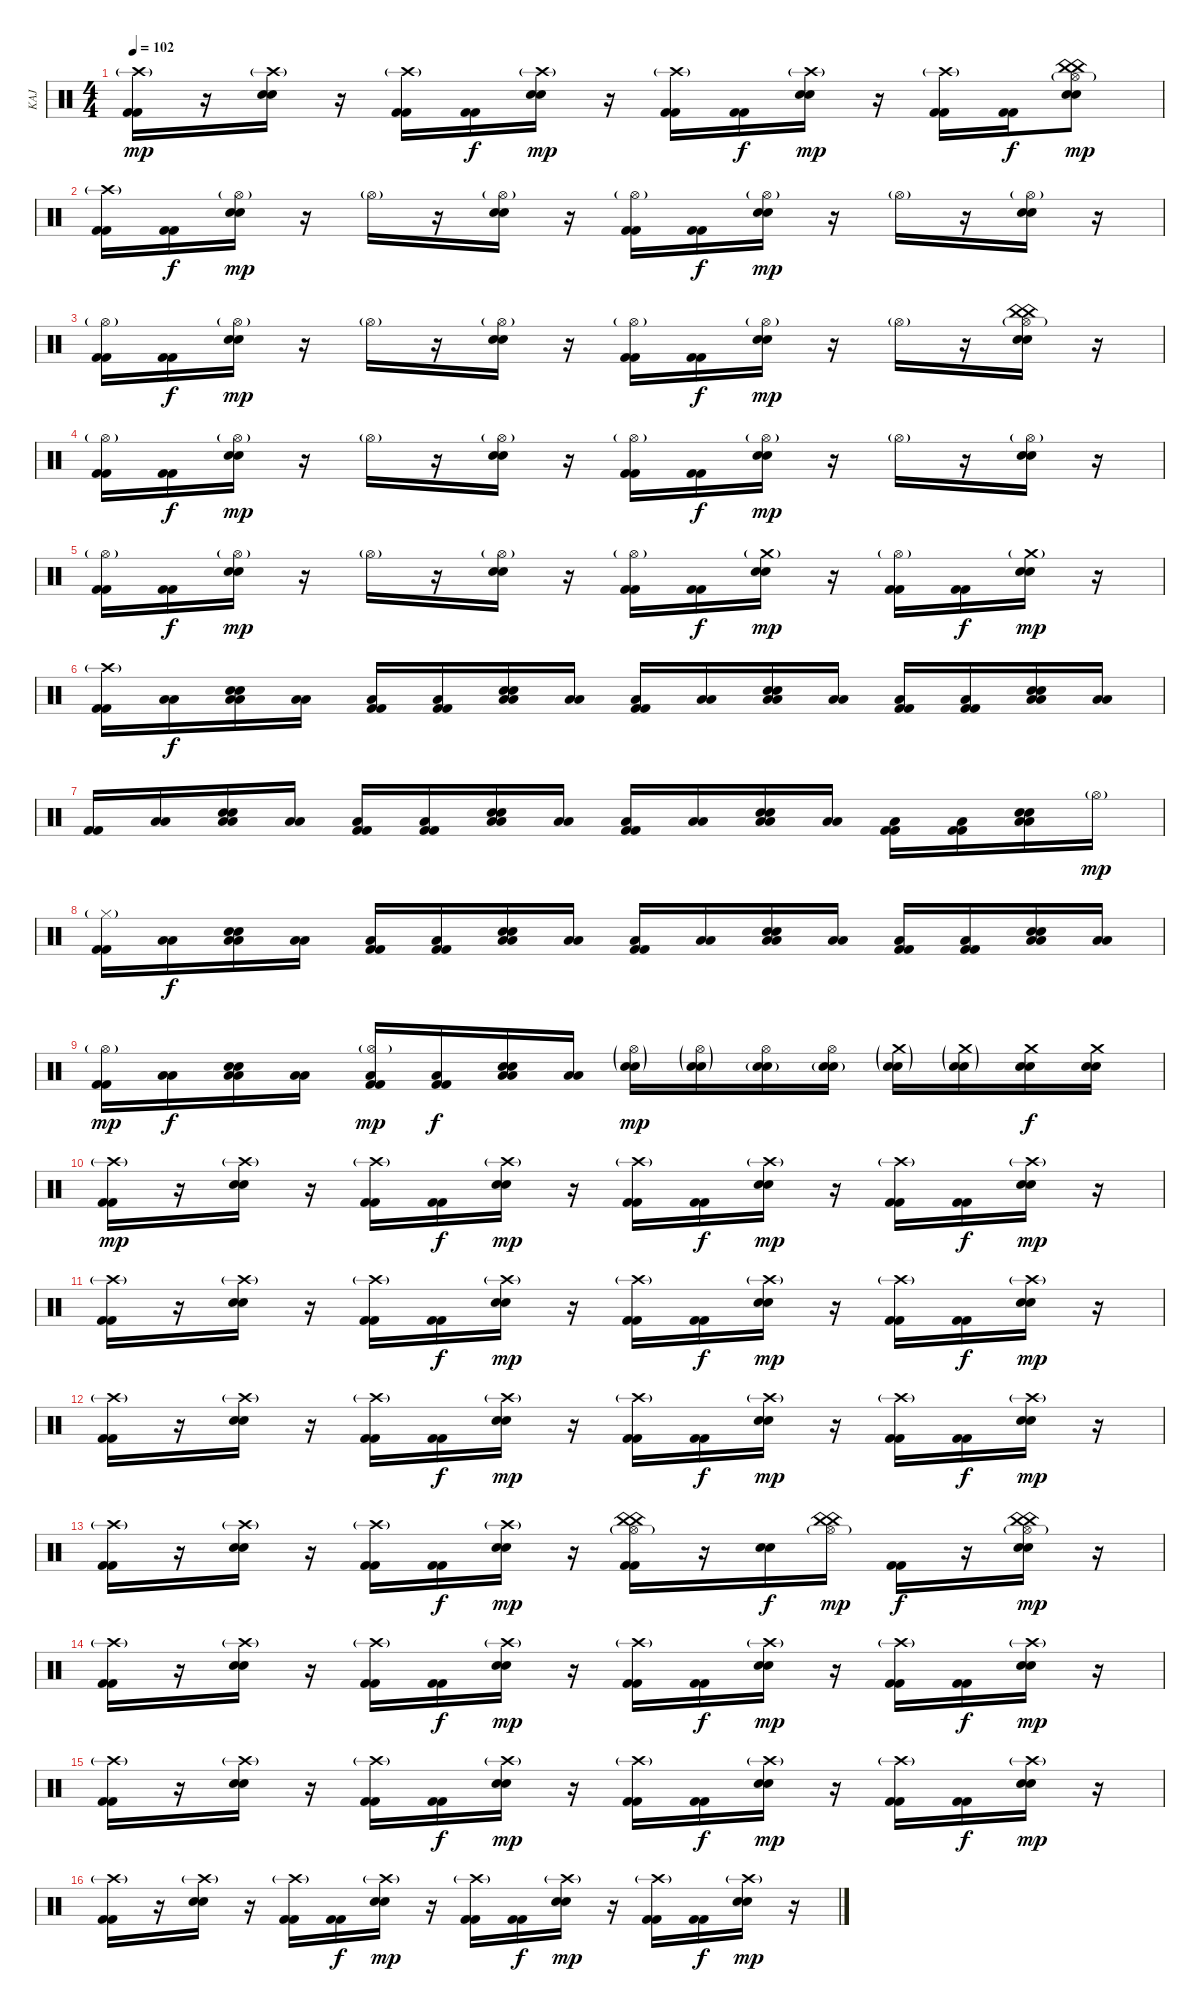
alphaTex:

\track ("KAJ" "KAJ") {instrument percussion}
\staff {score}
\articulation defaults
\ts (4 4)
\tempo 102
\clef neutral
\ks c
("Crash high (hit)"{g} "Kick (hit) 2" "Kick (hit) 2").16{dy mp} r.16 ("Crash high (hit)"{g} "Electric Snare (hit)" "Electric Snare (hit)").16 r.16 ("Crash high (hit)"{g} "Kick (hit) 2" "Kick (hit) 2").16 ("Kick (hit) 2" "Kick (hit) 2").16{dy f} ("Crash high (hit)"{g} "Electric Snare (hit)" "Electric Snare (hit)").16{dy mp} r.16 ("Crash high (hit)"{g} "Kick (hit) 2" "Kick (hit) 2").16 ("Kick (hit) 2" "Kick (hit) 2").16{dy f} ("Crash high (hit)"{g} "Electric Snare (hit)" "Electric Snare (hit)").16{dy mp} r.16 ("Crash high (hit)"{g} "Kick (hit) 2" "Kick (hit) 2").16 ("Kick (hit) 2" "Kick (hit) 2").16{dy f} ("Hi-Hat (open)"{g} "China (hit)" "China (hit)" "Electric Snare (hit)" "Electric Snare (hit)").8{dy mp} |
("Crash high (hit)"{g} "Kick (hit) 2" "Kick (hit) 2").16 ("Kick (hit) 2" "Kick (hit) 2").16{dy f} ("Hi-Hat (open)"{g} "Electric Snare (hit)" "Electric Snare (hit)").16{dy mp} r.16 "Hi-Hat (open)"{g}.16 r.16 ("Hi-Hat (open)"{g} "Electric Snare (hit)" "Electric Snare (hit)").16 r.16 ("Hi-Hat (open)"{g} "Kick (hit) 2" "Kick (hit) 2").16 ("Kick (hit) 2" "Kick (hit) 2").16{dy f} ("Hi-Hat (open)"{g} "Electric Snare (hit)" "Electric Snare (hit)").16{dy mp} r.16 "Hi-Hat (open)"{g}.16 r.16 ("Hi-Hat (open)"{g} "Electric Snare (hit)" "Electric Snare (hit)").16 r.16 |
("Hi-Hat (open)"{g} "Kick (hit) 2" "Kick (hit) 2").16 ("Kick (hit) 2" "Kick (hit) 2").16{dy f} ("Hi-Hat (open)"{g} "Electric Snare (hit)" "Electric Snare (hit)").16{dy mp} r.16 "Hi-Hat (open)"{g}.16 r.16 ("Hi-Hat (open)"{g} "Electric Snare (hit)" "Electric Snare (hit)").16 r.16 ("Hi-Hat (open)"{g} "Kick (hit) 2" "Kick (hit) 2").16 ("Kick (hit) 2" "Kick (hit) 2").16{dy f} ("Hi-Hat (open)"{g} "Electric Snare (hit)" "Electric Snare (hit)").16{dy mp} r.16 "Hi-Hat (open)"{g}.16 r.16 ("Hi-Hat (open)"{g} "China (hit)" "China (hit)" "Electric Snare (hit)" "Electric Snare (hit)").16 r.16 |
("Hi-Hat (open)"{g} "Kick (hit) 2" "Kick (hit) 2").16 ("Kick (hit) 2" "Kick (hit) 2").16{dy f} ("Hi-Hat (open)"{g} "Electric Snare (hit)" "Electric Snare (hit)").16{dy mp} r.16 "Hi-Hat (open)"{g}.16 r.16 ("Hi-Hat (open)"{g} "Electric Snare (hit)" "Electric Snare (hit)").16 r.16 ("Hi-Hat (open)"{g} "Kick (hit) 2" "Kick (hit) 2").16 ("Kick (hit) 2" "Kick (hit) 2").16{dy f} ("Hi-Hat (open)"{g} "Electric Snare (hit)" "Electric Snare (hit)").16{dy mp} r.16 "Hi-Hat (open)"{g}.16 r.16 ("Hi-Hat (open)"{g} "Electric Snare (hit)" "Electric Snare (hit)").16 r.16 |
("Hi-Hat (open)"{g} "Kick (hit) 2" "Kick (hit) 2").16 ("Kick (hit) 2" "Kick (hit) 2").16{dy f} ("Hi-Hat (open)"{g} "Electric Snare (hit)" "Electric Snare (hit)").16{dy mp} r.16 "Hi-Hat (open)"{g}.16 r.16 ("Hi-Hat (open)"{g} "Electric Snare (hit)" "Electric Snare (hit)").16 r.16 ("Hi-Hat (open)"{g} "Kick (hit) 2" "Kick (hit) 2").16 ("Kick (hit) 2" "Kick (hit) 2").16{dy f} ("Crash medium (hit)"{g} "Electric Snare (hit)" "Electric Snare (hit)").16{dy mp} r.16 ("Hi-Hat (open)"{g} "Kick (hit) 2" "Kick (hit) 2").16 ("Kick (hit) 2" "Kick (hit) 2").16{dy f} ("Crash medium (hit)"{g} "Electric Snare (hit)" "Electric Snare (hit)").16{dy mp} r.16 |
("Crash high (hit)"{g} "Kick (hit) 2" "Kick (hit) 2").16 ("Low Tom (hit)" "Low Tom (hit)").16{dy f} ("Electric Snare (hit)" "Electric Snare (hit)" "Low Tom (hit)" "Low Tom (hit)").16 ("Low Tom (hit)" "Low Tom (hit)").16 ("Kick (hit) 2" "Low Tom (hit)" "Kick (hit) 2").16 ("Kick (hit) 2" "Low Tom (hit)" "Kick (hit) 2").16 ("Electric Snare (hit)" "Electric Snare (hit)" "Low Tom (hit)" "Low Tom (hit)").16 ("Low Tom (hit)" "Low Tom (hit)").16 ("Kick (hit) 2" "Low Tom (hit)" "Kick (hit) 2").16 ("Low Tom (hit)" "Low Tom (hit)").16 ("Electric Snare (hit)" "Electric Snare (hit)" "Low Tom (hit)" "Low Tom (hit)").16 ("Low Tom (hit)" "Low Tom (hit)").16 ("Kick (hit) 2" "Low Tom (hit)" "Kick (hit) 2").16 ("Kick (hit) 2" "Low Tom (hit)" "Kick (hit) 2").16 ("Electric Snare (hit)" "Electric Snare (hit)" "Low Tom (hit)" "Low Tom (hit)").16 ("Low Tom (hit)" "Low Tom (hit)").16 |
("Kick (hit) 2" "Kick (hit) 2").16 ("Low Tom (hit)" "Low Tom (hit)").16 ("Electric Snare (hit)" "Electric Snare (hit)" "Low Tom (hit)" "Low Tom (hit)").16 ("Low Tom (hit)" "Low Tom (hit)").16 ("Kick (hit) 2" "Low Tom (hit)" "Kick (hit) 2").16 ("Kick (hit) 2" "Low Tom (hit)" "Kick (hit) 2").16 ("Electric Snare (hit)" "Electric Snare (hit)" "Low Tom (hit)" "Low Tom (hit)").16 ("Low Tom (hit)" "Low Tom (hit)").16 ("Kick (hit) 2" "Low Tom (hit)" "Kick (hit) 2").16 ("Low Tom (hit)" "Low Tom (hit)").16 ("Electric Snare (hit)" "Electric Snare (hit)" "Low Tom (hit)" "Low Tom (hit)").16 ("Low Tom (hit)" "Low Tom (hit)").16 ("Kick (hit) 2" "Low Tom (hit)" "Kick (hit) 2").16 ("Kick (hit) 2" "Low Tom (hit)" "Kick (hit) 2").16 ("Electric Snare (hit)" "Electric Snare (hit)" "Low Tom (hit)" "Low Tom (hit)").16 "Hi-Hat (open)"{g}.16{dy mp} |
("Hi-Hat (closed)"{g} "Kick (hit) 2" "Kick (hit) 2").16 ("Low Tom (hit)" "Low Tom (hit)").16{dy f} ("Electric Snare (hit)" "Electric Snare (hit)" "Low Tom (hit)" "Low Tom (hit)").16 ("Low Tom (hit)" "Low Tom (hit)").16 ("Kick (hit) 2" "Low Tom (hit)" "Kick (hit) 2").16 ("Kick (hit) 2" "Low Tom (hit)" "Kick (hit) 2").16 ("Electric Snare (hit)" "Electric Snare (hit)" "Low Tom (hit)" "Low Tom (hit)").16 ("Low Tom (hit)" "Low Tom (hit)").16 ("Kick (hit) 2" "Low Tom (hit)" "Kick (hit) 2").16 ("Low Tom (hit)" "Low Tom (hit)").16 ("Electric Snare (hit)" "Electric Snare (hit)" "Low Tom (hit)" "Low Tom (hit)").16 ("Low Tom (hit)" "Low Tom (hit)").16 ("Kick (hit) 2" "Low Tom (hit)" "Kick (hit) 2").16 ("Kick (hit) 2" "Low Tom (hit)" "Kick (hit) 2").16 ("Electric Snare (hit)" "Electric Snare (hit)" "Low Tom (hit)" "Low Tom (hit)").16 ("Low Tom (hit)" "Low Tom (hit)").16 |
("Hi-Hat (open)"{g} "Kick (hit) 2" "Kick (hit) 2").16{dy mp} ("Low Tom (hit)" "Low Tom (hit)").16{dy f} ("Electric Snare (hit)" "Electric Snare (hit)" "Low Tom (hit)" "Low Tom (hit)").16 ("Low Tom (hit)" "Low Tom (hit)").16 ("Hi-Hat (open)"{g} "Kick (hit) 2" "Low Tom (hit)" "Kick (hit) 2").16{dy mp} ("Kick (hit) 2" "Low Tom (hit)" "Kick (hit) 2").16{dy f} ("Electric Snare (hit)" "Electric Snare (hit)" "Low Tom (hit)" "Low Tom (hit)").16 ("Low Tom (hit)" "Low Tom (hit)").16 ("Hi-Hat (open)"{g} "Electric Snare (hit)"{g} "Electric Snare (hit)"{g}).16{dy mp} ("Hi-Hat (open)"{g} "Electric Snare (hit)"{g} "Electric Snare (hit)"{g}).16 ("Hi-Hat (open)" "Electric Snare (hit)"{g} "Electric Snare (hit)").16 ("Hi-Hat (open)" "Electric Snare (hit)"{g} "Electric Snare (hit)").16 ("Crash medium (hit)"{g} "Electric Snare (hit)"{g} "Electric Snare (hit)").16 ("Crash medium (hit)"{g} "Electric Snare (hit)"{g} "Electric Snare (hit)").16 ("Crash medium (hit)" "Electric Snare (hit)" "Electric Snare (hit)").16{dy f} ("Crash medium (hit)" "Electric Snare (hit)" "Electric Snare (hit)").16 |
("Crash high (hit)"{g} "Kick (hit) 2" "Kick (hit) 2").16{dy mp} r.16 ("Crash high (hit)"{g} "Electric Snare (hit)" "Electric Snare (hit)").16 r.16 ("Crash high (hit)"{g} "Kick (hit) 2" "Kick (hit) 2").16 ("Kick (hit) 2" "Kick (hit) 2").16{dy f} ("Crash high (hit)"{g} "Electric Snare (hit)" "Electric Snare (hit)").16{dy mp} r.16 ("Crash high (hit)"{g} "Kick (hit) 2" "Kick (hit) 2").16 ("Kick (hit) 2" "Kick (hit) 2").16{dy f} ("Crash high (hit)"{g} "Electric Snare (hit)" "Electric Snare (hit)").16{dy mp} r.16 ("Crash high (hit)"{g} "Kick (hit) 2" "Kick (hit) 2").16 ("Kick (hit) 2" "Kick (hit) 2").16{dy f} ("Crash high (hit)"{g} "Electric Snare (hit)" "Electric Snare (hit)").16{dy mp} r.16 |
("Crash high (hit)"{g} "Kick (hit) 2" "Kick (hit) 2").16 r.16 ("Crash high (hit)"{g} "Electric Snare (hit)" "Electric Snare (hit)").16 r.16 ("Crash high (hit)"{g} "Kick (hit) 2" "Kick (hit) 2").16 ("Kick (hit) 2" "Kick (hit) 2").16{dy f} ("Crash high (hit)"{g} "Electric Snare (hit)" "Electric Snare (hit)").16{dy mp} r.16 ("Crash high (hit)"{g} "Kick (hit) 2" "Kick (hit) 2").16 ("Kick (hit) 2" "Kick (hit) 2").16{dy f} ("Crash high (hit)"{g} "Electric Snare (hit)" "Electric Snare (hit)").16{dy mp} r.16 ("Crash high (hit)"{g} "Kick (hit) 2" "Kick (hit) 2").16 ("Kick (hit) 2" "Kick (hit) 2").16{dy f} ("Crash high (hit)"{g} "Electric Snare (hit)" "Electric Snare (hit)").16{dy mp} r.16 |
("Crash high (hit)"{g} "Kick (hit) 2" "Kick (hit) 2").16 r.16 ("Crash high (hit)"{g} "Electric Snare (hit)" "Electric Snare (hit)").16 r.16 ("Crash high (hit)"{g} "Kick (hit) 2" "Kick (hit) 2").16 ("Kick (hit) 2" "Kick (hit) 2").16{dy f} ("Crash high (hit)"{g} "Electric Snare (hit)" "Electric Snare (hit)").16{dy mp} r.16 ("Crash high (hit)"{g} "Kick (hit) 2" "Kick (hit) 2").16 ("Kick (hit) 2" "Kick (hit) 2").16{dy f} ("Crash high (hit)"{g} "Electric Snare (hit)" "Electric Snare (hit)").16{dy mp} r.16 ("Crash high (hit)"{g} "Kick (hit) 2" "Kick (hit) 2").16 ("Kick (hit) 2" "Kick (hit) 2").16{dy f} ("Crash high (hit)"{g} "Electric Snare (hit)" "Electric Snare (hit)").16{dy mp} r.16 |
("Crash high (hit)"{g} "Kick (hit) 2" "Kick (hit) 2").16 r.16 ("Crash high (hit)"{g} "Electric Snare (hit)" "Electric Snare (hit)").16 r.16 ("Crash high (hit)"{g} "Kick (hit) 2" "Kick (hit) 2").16 ("Kick (hit) 2" "Kick (hit) 2").16{dy f} ("Crash high (hit)"{g} "Electric Snare (hit)" "Electric Snare (hit)").16{dy mp} r.16 ("Hi-Hat (open)"{g} "China (hit)" "China (hit)" "Kick (hit) 2" "Kick (hit) 2").16 r.16 ("Electric Snare (hit)" "Electric Snare (hit)").16{dy f} ("Hi-Hat (open)"{g} "China (hit)" "China (hit)").16{dy mp} ("Kick (hit) 2" "Kick (hit) 2").16{dy f} r.16 ("Hi-Hat (open)"{g} "China (hit)" "China (hit)" "Electric Snare (hit)" "Electric Snare (hit)").16{dy mp} r.16 |
("Crash high (hit)"{g} "Kick (hit) 2" "Kick (hit) 2").16 r.16 ("Crash high (hit)"{g} "Electric Snare (hit)" "Electric Snare (hit)").16 r.16 ("Crash high (hit)"{g} "Kick (hit) 2" "Kick (hit) 2").16 ("Kick (hit) 2" "Kick (hit) 2").16{dy f} ("Crash high (hit)"{g} "Electric Snare (hit)" "Electric Snare (hit)").16{dy mp} r.16 ("Crash high (hit)"{g} "Kick (hit) 2" "Kick (hit) 2").16 ("Kick (hit) 2" "Kick (hit) 2").16{dy f} ("Crash high (hit)"{g} "Electric Snare (hit)" "Electric Snare (hit)").16{dy mp} r.16 ("Crash high (hit)"{g} "Kick (hit) 2" "Kick (hit) 2").16 ("Kick (hit) 2" "Kick (hit) 2").16{dy f} ("Crash high (hit)"{g} "Electric Snare (hit)" "Electric Snare (hit)").16{dy mp} r.16 |
("Crash high (hit)"{g} "Kick (hit) 2" "Kick (hit) 2").16 r.16 ("Crash high (hit)"{g} "Electric Snare (hit)" "Electric Snare (hit)").16 r.16 ("Crash high (hit)"{g} "Kick (hit) 2" "Kick (hit) 2").16 ("Kick (hit) 2" "Kick (hit) 2").16{dy f} ("Crash high (hit)"{g} "Electric Snare (hit)" "Electric Snare (hit)").16{dy mp} r.16 ("Crash high (hit)"{g} "Kick (hit) 2" "Kick (hit) 2").16 ("Kick (hit) 2" "Kick (hit) 2").16{dy f} ("Crash high (hit)"{g} "Electric Snare (hit)" "Electric Snare (hit)").16{dy mp} r.16 ("Crash high (hit)"{g} "Kick (hit) 2" "Kick (hit) 2").16 ("Kick (hit) 2" "Kick (hit) 2").16{dy f} ("Crash high (hit)"{g} "Electric Snare (hit)" "Electric Snare (hit)").16{dy mp} r.16 |
("Crash high (hit)"{g} "Kick (hit) 2" "Kick (hit) 2").16 r.16 ("Crash high (hit)"{g} "Electric Snare (hit)" "Electric Snare (hit)").16 r.16 ("Crash high (hit)"{g} "Kick (hit) 2" "Kick (hit) 2").16 ("Kick (hit) 2" "Kick (hit) 2").16{dy f} ("Crash high (hit)"{g} "Electric Snare (hit)" "Electric Snare (hit)").16{dy mp} r.16 ("Crash high (hit)"{g} "Kick (hit) 2" "Kick (hit) 2").16 ("Kick (hit) 2" "Kick (hit) 2").16{dy f} ("Crash high (hit)"{g} "Electric Snare (hit)" "Electric Snare (hit)").16{dy mp} r.16 ("Crash high (hit)"{g} "Kick (hit) 2" "Kick (hit) 2").16 ("Kick (hit) 2" "Kick (hit) 2").16{dy f} ("Crash high (hit)"{g} "Electric Snare (hit)" "Electric Snare (hit)").16{dy mp} r.16
